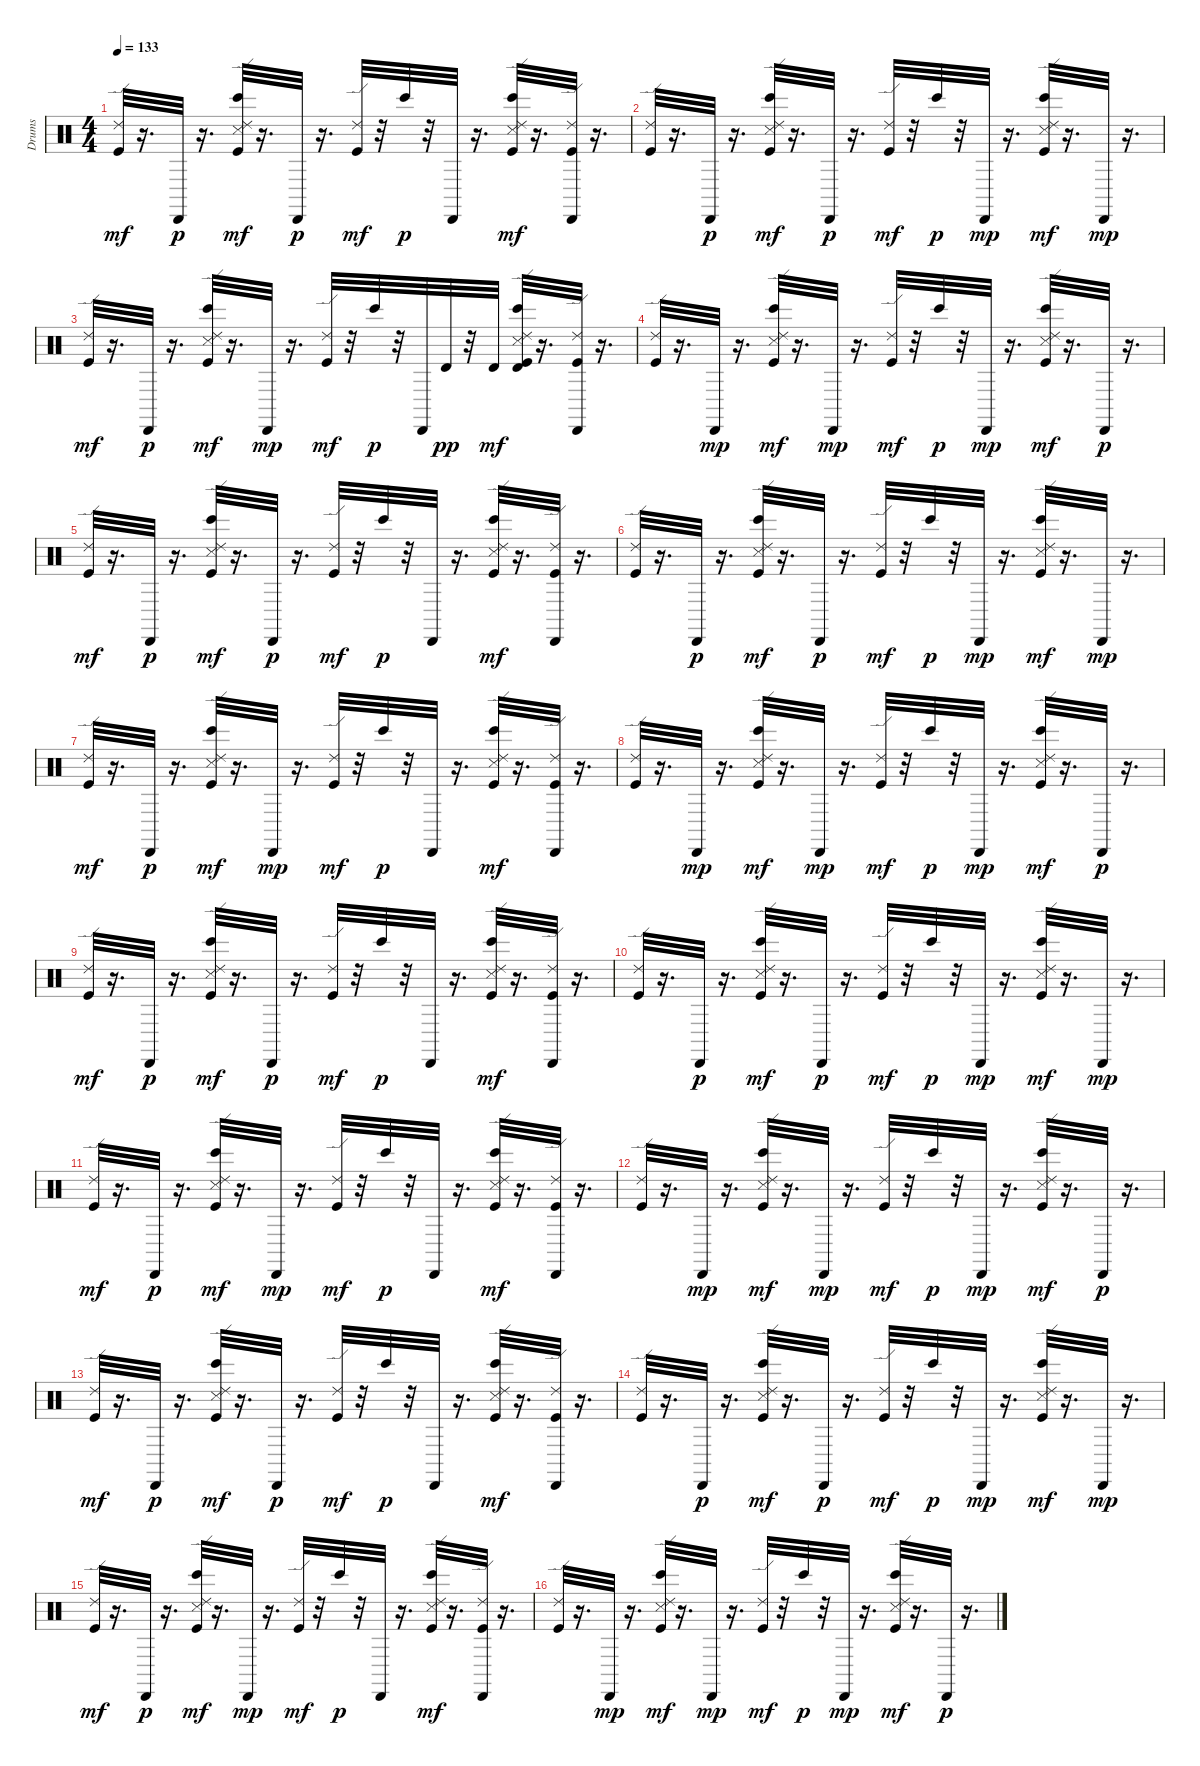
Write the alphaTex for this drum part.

\track ("Drums" "Drums") {instrument percussion}
\staff {score}
\articulation defaults
\ts (4 4)
\tempo 133
\clef neutral
\ks c
("Kick (hit)" "Ride (edge) 2").32{dy mf} r.16{d} "Cabasa (hit)".32{dy p} r.16{d} ("Kick (hit)" "Snare (side stick) 3" "Ride (edge) 2" "Bongo High (hit)").32{dy mf} r.16{d} "Cabasa (hit)".32{dy p} r.16{d} ("Kick (hit)" "Ride (edge) 2").32{dy mf} r.32 "Bongo High (hit)".32{dy p} r.32 "Cabasa (hit)".32 r.16{d} ("Kick (hit)" "Snare (side stick) 3" "Ride (edge) 2" "Bongo High (hit)").32{dy mf} r.16{d} ("Cabasa (hit)" "Kick (hit)" "Ride (edge) 2").32 r.16{d} |
("Kick (hit)" "Ride (edge) 2").32 r.16{d} "Cabasa (hit)".32{dy p} r.16{d} ("Kick (hit)" "Snare (side stick) 3" "Ride (edge) 2" "Bongo High (hit)").32{dy mf} r.16{d} "Cabasa (hit)".32{dy p} r.16{d} ("Kick (hit)" "Ride (edge) 2").32{dy mf} r.32 "Bongo High (hit)".32{dy p} r.32 "Cabasa (hit)".32{dy mp} r.16{d} ("Kick (hit)" "Snare (side stick) 3" "Ride (edge) 2" "Bongo High (hit)").32{dy mf} r.16{d} "Cabasa (hit)".32{dy mp} r.16{d} |
("Kick (hit)" "Ride (edge) 2").32{dy mf} r.16{d} "Cabasa (hit)".32{dy p} r.16{d} ("Kick (hit)" "Snare (side stick) 3" "Ride (edge) 2" "Bongo High (hit)").32{dy mf} r.16{d} "Cabasa (hit)".32{dy mp} r.16{d} ("Kick (hit)" "Ride (edge) 2").32{dy mf} r.32 "Bongo High (hit)".32{dy p} r.32 "Cabasa (hit)".32 "Timbale high (hit)".32{dy pp} r.32 "Timbale high (hit)".32{dy mf} ("Kick (hit)" "Snare (side stick) 3" "Ride (edge) 2" "Bongo High (hit)" "Timbale high (hit)").32 r.16{d} ("Cabasa (hit)" "Kick (hit)" "Ride (edge) 2").32 r.16{d} |
("Kick (hit)" "Ride (edge) 2").32 r.16{d} "Cabasa (hit)".32{dy mp} r.16{d} ("Kick (hit)" "Snare (side stick) 3" "Ride (edge) 2" "Bongo High (hit)").32{dy mf} r.16{d} "Cabasa (hit)".32{dy mp} r.16{d} ("Kick (hit)" "Ride (edge) 2").32{dy mf} r.32 "Bongo High (hit)".32{dy p} r.32 "Cabasa (hit)".32{dy mp} r.16{d} ("Kick (hit)" "Snare (side stick) 3" "Ride (edge) 2" "Bongo High (hit)").32{dy mf} r.16{d} "Cabasa (hit)".32{dy p} r.16{d} |
("Kick (hit)" "Ride (edge) 2").32{dy mf} r.16{d} "Cabasa (hit)".32{dy p} r.16{d} ("Kick (hit)" "Snare (side stick) 3" "Ride (edge) 2" "Bongo High (hit)").32{dy mf} r.16{d} "Cabasa (hit)".32{dy p} r.16{d} ("Kick (hit)" "Ride (edge) 2").32{dy mf} r.32 "Bongo High (hit)".32{dy p} r.32 "Cabasa (hit)".32 r.16{d} ("Kick (hit)" "Snare (side stick) 3" "Ride (edge) 2" "Bongo High (hit)").32{dy mf} r.16{d} ("Cabasa (hit)" "Kick (hit)" "Ride (edge) 2").32 r.16{d} |
("Kick (hit)" "Ride (edge) 2").32 r.16{d} "Cabasa (hit)".32{dy p} r.16{d} ("Kick (hit)" "Snare (side stick) 3" "Ride (edge) 2" "Bongo High (hit)").32{dy mf} r.16{d} "Cabasa (hit)".32{dy p} r.16{d} ("Kick (hit)" "Ride (edge) 2").32{dy mf} r.32 "Bongo High (hit)".32{dy p} r.32 "Cabasa (hit)".32{dy mp} r.16{d} ("Kick (hit)" "Snare (side stick) 3" "Ride (edge) 2" "Bongo High (hit)").32{dy mf} r.16{d} "Cabasa (hit)".32{dy mp} r.16{d} |
("Kick (hit)" "Ride (edge) 2").32{dy mf} r.16{d} "Cabasa (hit)".32{dy p} r.16{d} ("Kick (hit)" "Snare (side stick) 3" "Ride (edge) 2" "Bongo High (hit)").32{dy mf} r.16{d} "Cabasa (hit)".32{dy mp} r.16{d} ("Kick (hit)" "Ride (edge) 2").32{dy mf} r.32 "Bongo High (hit)".32{dy p} r.32 "Cabasa (hit)".32 r.16{d} ("Kick (hit)" "Snare (side stick) 3" "Ride (edge) 2" "Bongo High (hit)").32{dy mf} r.16{d} ("Cabasa (hit)" "Kick (hit)" "Ride (edge) 2").32 r.16{d} |
("Kick (hit)" "Ride (edge) 2").32 r.16{d} "Cabasa (hit)".32{dy mp} r.16{d} ("Kick (hit)" "Snare (side stick) 3" "Ride (edge) 2" "Bongo High (hit)").32{dy mf} r.16{d} "Cabasa (hit)".32{dy mp} r.16{d} ("Kick (hit)" "Ride (edge) 2").32{dy mf} r.32 "Bongo High (hit)".32{dy p} r.32 "Cabasa (hit)".32{dy mp} r.16{d} ("Kick (hit)" "Snare (side stick) 3" "Ride (edge) 2" "Bongo High (hit)").32{dy mf} r.16{d} "Cabasa (hit)".32{dy p} r.16{d} |
("Kick (hit)" "Ride (edge) 2").32{dy mf} r.16{d} "Cabasa (hit)".32{dy p} r.16{d} ("Kick (hit)" "Snare (side stick) 3" "Ride (edge) 2" "Bongo High (hit)").32{dy mf} r.16{d} "Cabasa (hit)".32{dy p} r.16{d} ("Kick (hit)" "Ride (edge) 2").32{dy mf} r.32 "Bongo High (hit)".32{dy p} r.32 "Cabasa (hit)".32 r.16{d} ("Kick (hit)" "Snare (side stick) 3" "Ride (edge) 2" "Bongo High (hit)").32{dy mf} r.16{d} ("Cabasa (hit)" "Kick (hit)" "Ride (edge) 2").32 r.16{d} |
("Kick (hit)" "Ride (edge) 2").32 r.16{d} "Cabasa (hit)".32{dy p} r.16{d} ("Kick (hit)" "Snare (side stick) 3" "Ride (edge) 2" "Bongo High (hit)").32{dy mf} r.16{d} "Cabasa (hit)".32{dy p} r.16{d} ("Kick (hit)" "Ride (edge) 2").32{dy mf} r.32 "Bongo High (hit)".32{dy p} r.32 "Cabasa (hit)".32{dy mp} r.16{d} ("Kick (hit)" "Snare (side stick) 3" "Ride (edge) 2" "Bongo High (hit)").32{dy mf} r.16{d} "Cabasa (hit)".32{dy mp} r.16{d} |
("Kick (hit)" "Ride (edge) 2").32{dy mf} r.16{d} "Cabasa (hit)".32{dy p} r.16{d} ("Kick (hit)" "Snare (side stick) 3" "Ride (edge) 2" "Bongo High (hit)").32{dy mf} r.16{d} "Cabasa (hit)".32{dy mp} r.16{d} ("Kick (hit)" "Ride (edge) 2").32{dy mf} r.32 "Bongo High (hit)".32{dy p} r.32 "Cabasa (hit)".32 r.16{d} ("Kick (hit)" "Snare (side stick) 3" "Ride (edge) 2" "Bongo High (hit)").32{dy mf} r.16{d} ("Cabasa (hit)" "Kick (hit)" "Ride (edge) 2").32 r.16{d} |
("Kick (hit)" "Ride (edge) 2").32 r.16{d} "Cabasa (hit)".32{dy mp} r.16{d} ("Kick (hit)" "Snare (side stick) 3" "Ride (edge) 2" "Bongo High (hit)").32{dy mf} r.16{d} "Cabasa (hit)".32{dy mp} r.16{d} ("Kick (hit)" "Ride (edge) 2").32{dy mf} r.32 "Bongo High (hit)".32{dy p} r.32 "Cabasa (hit)".32{dy mp} r.16{d} ("Kick (hit)" "Snare (side stick) 3" "Ride (edge) 2" "Bongo High (hit)").32{dy mf} r.16{d} "Cabasa (hit)".32{dy p} r.16{d} |
("Kick (hit)" "Ride (edge) 2").32{dy mf} r.16{d} "Cabasa (hit)".32{dy p} r.16{d} ("Kick (hit)" "Snare (side stick) 3" "Ride (edge) 2" "Bongo High (hit)").32{dy mf} r.16{d} "Cabasa (hit)".32{dy p} r.16{d} ("Kick (hit)" "Ride (edge) 2").32{dy mf} r.32 "Bongo High (hit)".32{dy p} r.32 "Cabasa (hit)".32 r.16{d} ("Kick (hit)" "Snare (side stick) 3" "Ride (edge) 2" "Bongo High (hit)").32{dy mf} r.16{d} ("Cabasa (hit)" "Kick (hit)" "Ride (edge) 2").32 r.16{d} |
("Kick (hit)" "Ride (edge) 2").32 r.16{d} "Cabasa (hit)".32{dy p} r.16{d} ("Kick (hit)" "Snare (side stick) 3" "Ride (edge) 2" "Bongo High (hit)").32{dy mf} r.16{d} "Cabasa (hit)".32{dy p} r.16{d} ("Kick (hit)" "Ride (edge) 2").32{dy mf} r.32 "Bongo High (hit)".32{dy p} r.32 "Cabasa (hit)".32{dy mp} r.16{d} ("Kick (hit)" "Snare (side stick) 3" "Ride (edge) 2" "Bongo High (hit)").32{dy mf} r.16{d} "Cabasa (hit)".32{dy mp} r.16{d} |
("Kick (hit)" "Ride (edge) 2").32{dy mf} r.16{d} "Cabasa (hit)".32{dy p} r.16{d} ("Kick (hit)" "Snare (side stick) 3" "Ride (edge) 2" "Bongo High (hit)").32{dy mf} r.16{d} "Cabasa (hit)".32{dy mp} r.16{d} ("Kick (hit)" "Ride (edge) 2").32{dy mf} r.32 "Bongo High (hit)".32{dy p} r.32 "Cabasa (hit)".32 r.16{d} ("Kick (hit)" "Snare (side stick) 3" "Ride (edge) 2" "Bongo High (hit)").32{dy mf} r.16{d} ("Cabasa (hit)" "Kick (hit)" "Ride (edge) 2").32 r.16{d} |
("Kick (hit)" "Ride (edge) 2").32 r.16{d} "Cabasa (hit)".32{dy mp} r.16{d} ("Kick (hit)" "Snare (side stick) 3" "Ride (edge) 2" "Bongo High (hit)").32{dy mf} r.16{d} "Cabasa (hit)".32{dy mp} r.16{d} ("Kick (hit)" "Ride (edge) 2").32{dy mf} r.32 "Bongo High (hit)".32{dy p} r.32 "Cabasa (hit)".32{dy mp} r.16{d} ("Kick (hit)" "Snare (side stick) 3" "Ride (edge) 2" "Bongo High (hit)").32{dy mf} r.16{d} "Cabasa (hit)".32{dy p} r.16{d}
